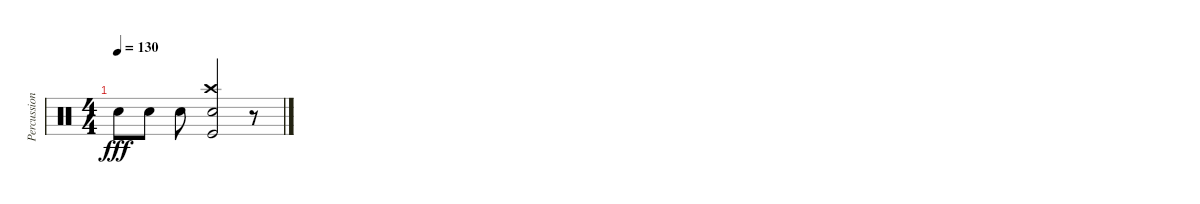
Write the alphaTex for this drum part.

\track ("Percussion" "Percussion") {instrument percussion}
\staff {score}
\articulation defaults
\ts (4 4)
\tempo 130
\clef neutral
\ks c "Snare (hit) 2".8{dy fff} "Snare (hit) 2".8 "Snare (hit) 2".8
("Crash high (hit)" "Snare (hit) 2" "Kick (hit)").2 r.8
